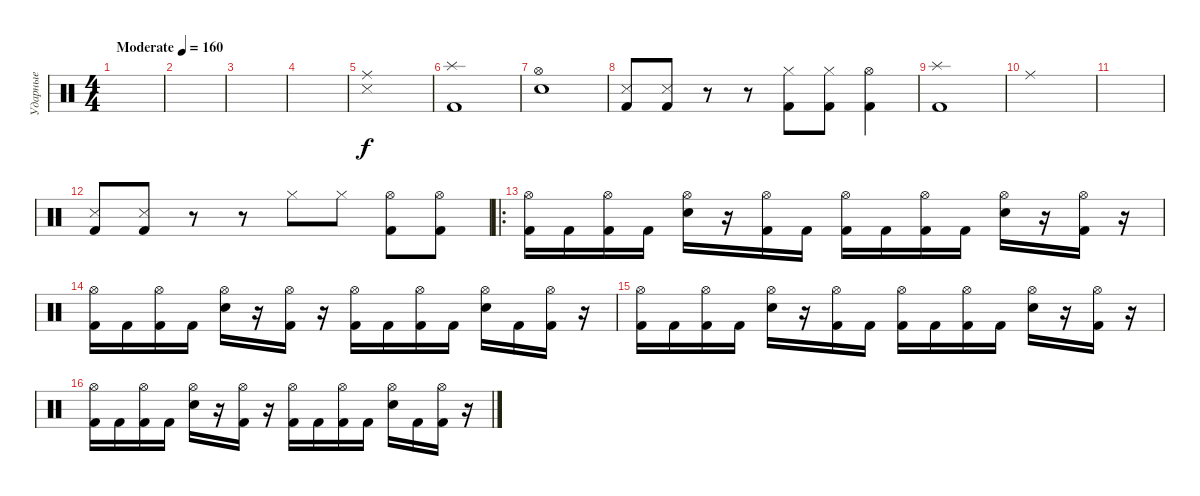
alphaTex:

\track ("Ударные" "Ударные") {instrument percussion}
\staff {score}
\articulation defaults
\ts (4 4)
\tempo (160 "Moderate")
\clef neutral
\ks c
|
|
|
|
("Ride (middle)" "Snare (side stick) 3").1 |
("Splash (hit)" "Kick (hit) 2").1 |
("Hi-Hat (open)" "Electric Snare (hit)").1 |
("Snare (side stick) 3" "Kick (hit) 2").8 ("Snare (side stick) 3" "Kick (hit) 2").8 r.8 r.8 ("Hi-Hat (closed)" "Kick (hit) 2").8 ("Hi-Hat (closed)" "Kick (hit) 2").8 ("Hi-Hat (open)" "Kick (hit) 2").4 |
("Splash (hit)" "Kick (hit) 2").1 |
"Ride (middle)".1 |
|
("Snare (side stick) 3" "Kick (hit) 2").8 ("Snare (side stick) 3" "Kick (hit) 2").8 r.8 r.8 "Hi-Hat (closed)".8 "Hi-Hat (closed)".8 ("Hi-Hat (open)" "Kick (hit) 2").8 ("Hi-Hat (open)" "Kick (hit) 2").8 |
\ro
("Hi-Hat (open)" "Kick (hit) 2").16 "Kick (hit) 2".16 ("Hi-Hat (open)" "Kick (hit) 2").16 "Kick (hit) 2".16 ("Hi-Hat (open)" "Electric Snare (hit)").16 r.16 ("Hi-Hat (open)" "Kick (hit) 2").16 "Kick (hit) 2".16 ("Hi-Hat (open)" "Kick (hit) 2").16 "Kick (hit) 2".16 ("Hi-Hat (open)" "Kick (hit) 2").16 "Kick (hit) 2".16 ("Hi-Hat (open)" "Electric Snare (hit)").16 r.16 ("Hi-Hat (open)" "Kick (hit) 2").16 r.16 |
("Hi-Hat (open)" "Kick (hit) 2").16 "Kick (hit) 2".16 ("Hi-Hat (open)" "Kick (hit) 2").16 "Kick (hit) 2".16 ("Hi-Hat (open)" "Electric Snare (hit)").16 r.16 ("Hi-Hat (open)" "Kick (hit) 2").16 r.16 ("Hi-Hat (open)" "Kick (hit) 2").16 "Kick (hit) 2".16 ("Hi-Hat (open)" "Kick (hit) 2").16 "Kick (hit) 2".16 ("Hi-Hat (open)" "Electric Snare (hit)").16 "Kick (hit) 2".16 ("Hi-Hat (open)" "Kick (hit) 2").16 r.16 |
("Hi-Hat (open)" "Kick (hit) 2").16 "Kick (hit) 2".16 ("Hi-Hat (open)" "Kick (hit) 2").16 "Kick (hit) 2".16 ("Hi-Hat (open)" "Electric Snare (hit)").16 r.16 ("Hi-Hat (open)" "Kick (hit) 2").16 "Kick (hit) 2".16 ("Hi-Hat (open)" "Kick (hit) 2").16 "Kick (hit) 2".16 ("Hi-Hat (open)" "Kick (hit) 2").16 "Kick (hit) 2".16 ("Hi-Hat (open)" "Electric Snare (hit)").16 r.16 ("Hi-Hat (open)" "Kick (hit) 2").16 r.16 |
("Hi-Hat (open)" "Kick (hit) 2").16 "Kick (hit) 2".16 ("Hi-Hat (open)" "Kick (hit) 2").16 "Kick (hit) 2".16 ("Hi-Hat (open)" "Electric Snare (hit)").16 r.16 ("Hi-Hat (open)" "Kick (hit) 2").16 r.16 ("Hi-Hat (open)" "Kick (hit) 2").16 "Kick (hit) 2".16 ("Hi-Hat (open)" "Kick (hit) 2").16 "Kick (hit) 2".16 ("Hi-Hat (open)" "Electric Snare (hit)").16 "Kick (hit) 2".16 ("Hi-Hat (open)" "Kick (hit) 2").16 r.16
